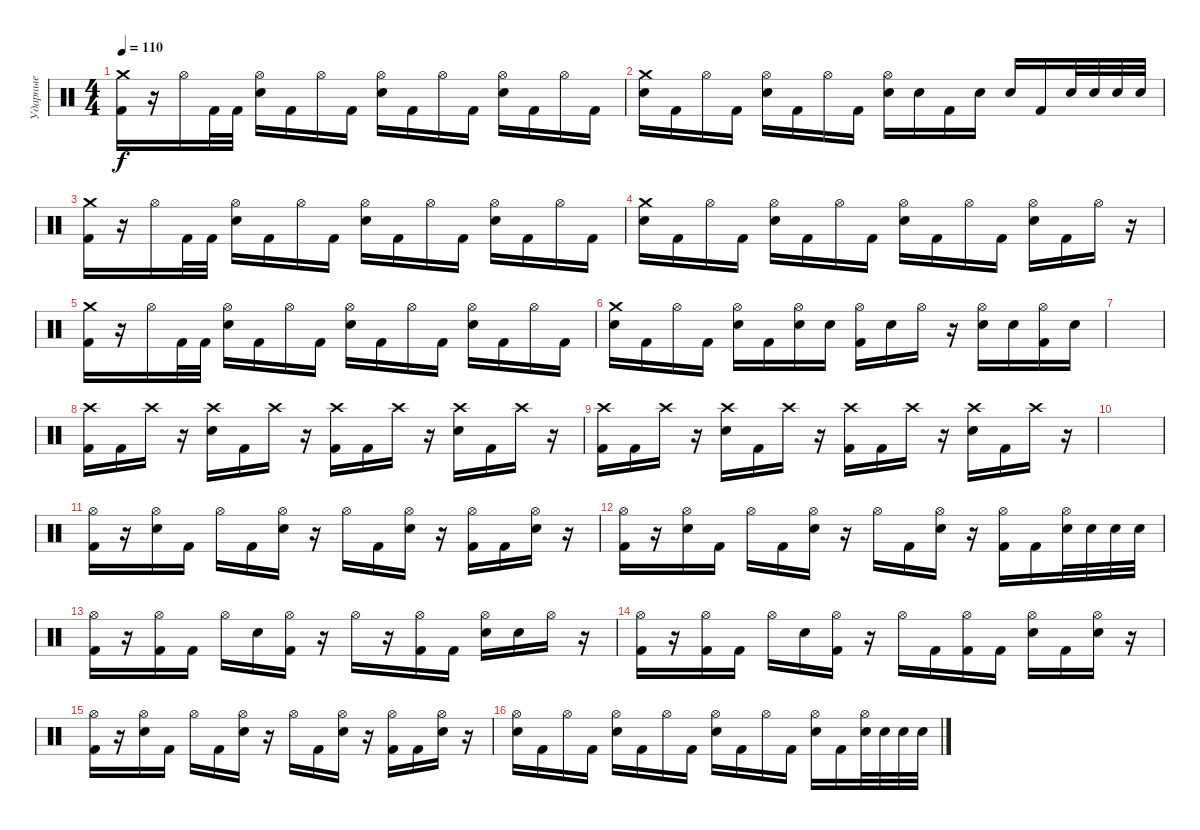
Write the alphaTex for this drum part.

\track ("Ударные" "Ударные") {instrument percussion}
\staff {score}
\articulation defaults
\ts (4 4)
\tempo 110
\clef neutral
\ks c
("Crash medium (hit)" "Kick (hit) 2").16{dy f} r.16 "Hi-Hat (open)".16 "Kick (hit) 2".32 "Kick (hit) 2".32 ("Hi-Hat (open)" "Electric Snare (hit)").16 "Kick (hit) 2".16 "Hi-Hat (open)".16 "Kick (hit) 2".16 ("Hi-Hat (open)" "Electric Snare (hit)").16 "Kick (hit) 2".16 "Hi-Hat (open)".16 "Kick (hit) 2".16 ("Hi-Hat (open)" "Electric Snare (hit)").16 "Kick (hit) 2".16 "Hi-Hat (open)".16 "Kick (hit) 2".16 |
("Crash medium (hit)" "Electric Snare (hit)").16 "Kick (hit) 2".16 "Hi-Hat (open)".16 "Kick (hit) 2".16 ("Hi-Hat (open)" "Electric Snare (hit)").16 "Kick (hit) 2".16 "Hi-Hat (open)".16 "Kick (hit) 2".16 ("Hi-Hat (open)" "Electric Snare (hit)").16 "Electric Snare (hit)".16 "Kick (hit) 2".16 "Electric Snare (hit)".16 "Electric Snare (hit)".16 "Kick (hit) 2".16 "Electric Snare (hit)".32 "Electric Snare (hit)".32 "Electric Snare (hit)".32 "Electric Snare (hit)".32 |
("Crash medium (hit)" "Kick (hit) 2").16 r.16 "Hi-Hat (open)".16 "Kick (hit) 2".32 "Kick (hit) 2".32 ("Hi-Hat (open)" "Electric Snare (hit)").16 "Kick (hit) 2".16 "Hi-Hat (open)".16 "Kick (hit) 2".16 ("Hi-Hat (open)" "Electric Snare (hit)").16 "Kick (hit) 2".16 "Hi-Hat (open)".16 "Kick (hit) 2".16 ("Hi-Hat (open)" "Electric Snare (hit)").16 "Kick (hit) 2".16 "Hi-Hat (open)".16 "Kick (hit) 2".16 |
("Crash medium (hit)" "Electric Snare (hit)").16 "Kick (hit) 2".16 "Hi-Hat (open)".16 "Kick (hit) 2".16 ("Hi-Hat (open)" "Electric Snare (hit)").16 "Kick (hit) 2".16 "Hi-Hat (open)".16 "Kick (hit) 2".16 ("Hi-Hat (open)" "Electric Snare (hit)").16 "Kick (hit) 2".16 "Hi-Hat (open)".16 "Kick (hit) 2".16 ("Hi-Hat (open)" "Electric Snare (hit)").16 "Kick (hit) 2".16 "Hi-Hat (open)".16 r.16 |
("Crash medium (hit)" "Kick (hit) 2").16 r.16 "Hi-Hat (open)".16 "Kick (hit) 2".32 "Kick (hit) 2".32 ("Hi-Hat (open)" "Electric Snare (hit)").16 "Kick (hit) 2".16 "Hi-Hat (open)".16 "Kick (hit) 2".16 ("Hi-Hat (open)" "Electric Snare (hit)").16 "Kick (hit) 2".16 "Hi-Hat (open)".16 "Kick (hit) 2".16 ("Hi-Hat (open)" "Electric Snare (hit)").16 "Kick (hit) 2".16 "Hi-Hat (open)".16 "Kick (hit) 2".16 |
("Crash medium (hit)" "Electric Snare (hit)").16 "Kick (hit) 2".16 "Hi-Hat (open)".16 "Kick (hit) 2".16 ("Hi-Hat (open)" "Electric Snare (hit)").16 "Kick (hit) 2".16 ("Hi-Hat (open)" "Electric Snare (hit)").16 "Electric Snare (hit)".16 ("Hi-Hat (open)" "Kick (hit) 2").16 "Electric Snare (hit)".16 "Hi-Hat (open)".16 r.16 ("Hi-Hat (open)" "Electric Snare (hit)").16 "Electric Snare (hit)".16 ("Hi-Hat (open)" "Kick (hit) 2").16 "Electric Snare (hit)".16 |
|
("Crash high (hit)" "Kick (hit) 2").16 "Kick (hit) 2".16 "Crash high (hit)".16 r.16 ("Crash high (hit)" "Electric Snare (hit)").16 "Kick (hit) 2".16 "Crash high (hit)".16 r.16 ("Crash high (hit)" "Kick (hit) 2").16 "Kick (hit) 2".16 "Crash high (hit)".16 r.16 ("Crash high (hit)" "Electric Snare (hit)").16 "Kick (hit) 2".16 "Crash high (hit)".16 r.16 |
("Crash high (hit)" "Kick (hit) 2").16 "Kick (hit) 2".16 "Crash high (hit)".16 r.16 ("Crash high (hit)" "Electric Snare (hit)").16 "Kick (hit) 2".16 "Crash high (hit)".16 r.16 ("Crash high (hit)" "Kick (hit) 2").16 "Kick (hit) 2".16 "Crash high (hit)".16 r.16 ("Crash high (hit)" "Electric Snare (hit)").16 "Kick (hit) 2".16 "Crash high (hit)".16 r.16 |
|
("Hi-Hat (open)" "Kick (hit) 2").16 r.16 ("Hi-Hat (open)" "Electric Snare (hit)").16 "Kick (hit) 2".16 "Hi-Hat (open)".16 "Kick (hit) 2".16 ("Hi-Hat (open)" "Electric Snare (hit)").16 r.16 "Hi-Hat (open)".16 "Kick (hit) 2".16 ("Hi-Hat (open)" "Electric Snare (hit)").16 r.16 ("Hi-Hat (open)" "Kick (hit) 2").16 "Kick (hit) 2".16 ("Hi-Hat (open)" "Electric Snare (hit)").16 r.16 |
("Hi-Hat (open)" "Kick (hit) 2").16 r.16 ("Hi-Hat (open)" "Electric Snare (hit)").16 "Kick (hit) 2".16 "Hi-Hat (open)".16 "Kick (hit) 2".16 ("Hi-Hat (open)" "Electric Snare (hit)").16 r.16 "Hi-Hat (open)".16 "Kick (hit) 2".16 ("Hi-Hat (open)" "Electric Snare (hit)").16 r.16 ("Hi-Hat (open)" "Kick (hit) 2").16 "Kick (hit) 2".16 ("Hi-Hat (open)" "Electric Snare (hit)").32 "Electric Snare (hit)".32 "Electric Snare (hit)".32 "Electric Snare (hit)".32 |
("Hi-Hat (open)" "Kick (hit) 2").16 r.16 ("Hi-Hat (open)" "Kick (hit) 2").16 "Kick (hit) 2".16 "Hi-Hat (open)".16 "Electric Snare (hit)".16 ("Hi-Hat (open)" "Kick (hit) 2").16 r.16 "Hi-Hat (open)".16 r.16 ("Hi-Hat (open)" "Kick (hit) 2").16 "Kick (hit) 2".16 ("Hi-Hat (open)" "Electric Snare (hit)").16 "Electric Snare (hit)".16 "Hi-Hat (open)".16 r.16 |
("Hi-Hat (open)" "Kick (hit) 2").16 r.16 ("Hi-Hat (open)" "Kick (hit) 2").16 "Kick (hit) 2".16 "Hi-Hat (open)".16 "Electric Snare (hit)".16 ("Hi-Hat (open)" "Kick (hit) 2").16 r.16 "Hi-Hat (open)".16 "Kick (hit) 2".16 ("Hi-Hat (open)" "Kick (hit) 2").16 "Kick (hit) 2".16 ("Hi-Hat (open)" "Electric Snare (hit)").16 "Kick (hit) 2".16 ("Hi-Hat (open)" "Electric Snare (hit)").16 r.16 |
("Hi-Hat (open)" "Kick (hit) 2").16 r.16 ("Hi-Hat (open)" "Electric Snare (hit)").16 "Kick (hit) 2".16 "Hi-Hat (open)".16 "Kick (hit) 2".16 ("Hi-Hat (open)" "Electric Snare (hit)").16 r.16 "Hi-Hat (open)".16 "Kick (hit) 2".16 ("Hi-Hat (open)" "Electric Snare (hit)").16 r.16 ("Hi-Hat (open)" "Kick (hit) 2").16 "Kick (hit) 2".16 ("Hi-Hat (open)" "Electric Snare (hit)").16 r.16 |
("Hi-Hat (open)" "Electric Snare (hit)").16 "Kick (hit) 2".16 "Hi-Hat (open)".16 "Kick (hit) 2".16 ("Hi-Hat (open)" "Electric Snare (hit)").16 "Kick (hit) 2".16 "Hi-Hat (open)".16 "Kick (hit) 2".16 ("Hi-Hat (open)" "Electric Snare (hit)").16 "Kick (hit) 2".16 "Hi-Hat (open)".16 "Kick (hit) 2".16 ("Hi-Hat (open)" "Electric Snare (hit)").16 "Kick (hit) 2".16 ("Hi-Hat (open)" "Electric Snare (hit)").32 "Electric Snare (hit)".32 "Electric Snare (hit)".32 "Electric Snare (hit)".32
